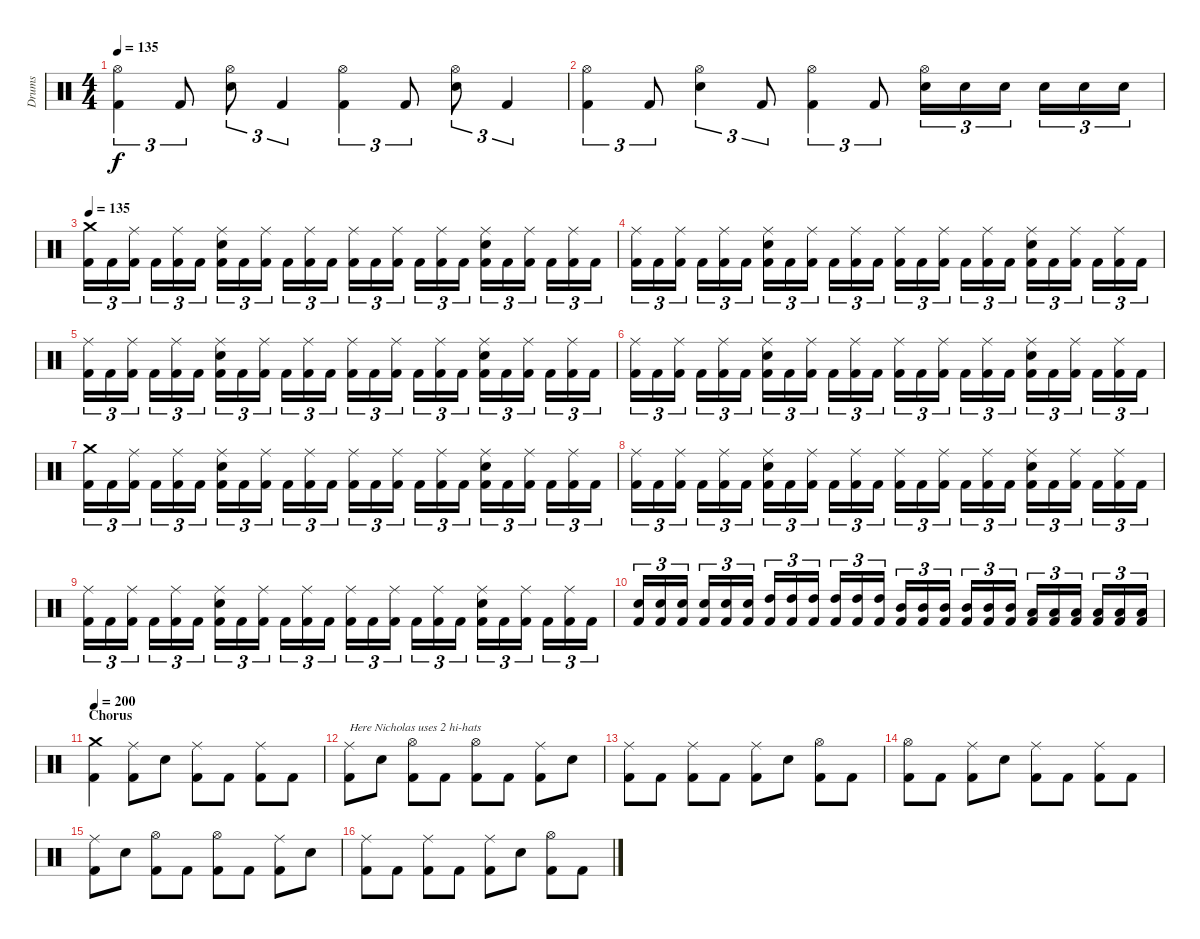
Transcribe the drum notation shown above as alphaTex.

\track ("Drums" "Drums") {instrument percussion}
\staff {score}
\articulation defaults
\ts (4 4)
\tempo 135
\clef neutral
\ks c
("Hi-Hat (open)" "Kick (hit) 2").4{tu (3 2) dy f} "Kick (hit) 2".8{tu (3 2)} ("Hi-Hat (open)" "Electric Snare (hit)").8{tu (3 2)} "Kick (hit) 2".4{tu (3 2)} ("Hi-Hat (open)" "Kick (hit) 2").4{tu (3 2)} "Kick (hit) 2".8{tu (3 2)} ("Hi-Hat (open)" "Electric Snare (hit)").8{tu (3 2)} "Kick (hit) 2".4{tu (3 2)} |
("Hi-Hat (open)" "Kick (hit) 2").4{tu (3 2)} "Kick (hit) 2".8{tu (3 2)} ("Hi-Hat (open)" "Electric Snare (hit)").4{tu (3 2)} "Kick (hit) 2".8{tu (3 2)} ("Hi-Hat (open)" "Kick (hit) 2").4{tu (3 2)} "Kick (hit) 2".8{tu (3 2)} ("Hi-Hat (open)" "Electric Snare (hit)").16{tu (3 2)} "Electric Snare (hit)".16{tu (3 2)} "Electric Snare (hit)".16{tu (3 2)} "Electric Snare (hit)".16{tu (3 2)} "Electric Snare (hit)".16{tu (3 2)} "Electric Snare (hit)".16{tu (3 2)} |
\tempo 135
("Crash medium (hit)" "Kick (hit) 2").16{tu (3 2)} "Kick (hit) 2".16{tu (3 2)} ("Ride (middle)" "Kick (hit) 2").16{tu (3 2)} "Kick (hit) 2".16{tu (3 2)} ("Ride (middle)" "Kick (hit) 2").16{tu (3 2)} "Kick (hit) 2".16{tu (3 2)} ("Ride (middle)" "Electric Snare (hit)" "Kick (hit) 2").16{tu (3 2)} "Kick (hit) 2".16{tu (3 2)} ("Ride (middle)" "Kick (hit) 2").16{tu (3 2)} "Kick (hit) 2".16{tu (3 2)} ("Ride (middle)" "Kick (hit) 2").16{tu (3 2)} "Kick (hit) 2".16{tu (3 2)} ("Ride (middle)" "Kick (hit) 2").16{tu (3 2)} "Kick (hit) 2".16{tu (3 2)} ("Ride (middle)" "Kick (hit) 2").16{tu (3 2)} "Kick (hit) 2".16{tu (3 2)} ("Ride (middle)" "Kick (hit) 2").16{tu (3 2)} "Kick (hit) 2".16{tu (3 2)} ("Ride (middle)" "Electric Snare (hit)" "Kick (hit) 2").16{tu (3 2)} "Kick (hit) 2".16{tu (3 2)} ("Ride (middle)" "Kick (hit) 2").16{tu (3 2)} "Kick (hit) 2".16{tu (3 2)} ("Ride (middle)" "Kick (hit) 2").16{tu (3 2)} "Kick (hit) 2".16{tu (3 2)} |
("Ride (middle)" "Kick (hit) 2").16{tu (3 2)} "Kick (hit) 2".16{tu (3 2)} ("Ride (middle)" "Kick (hit) 2").16{tu (3 2)} "Kick (hit) 2".16{tu (3 2)} ("Ride (middle)" "Kick (hit) 2").16{tu (3 2)} "Kick (hit) 2".16{tu (3 2)} ("Ride (middle)" "Electric Snare (hit)" "Kick (hit) 2").16{tu (3 2)} "Kick (hit) 2".16{tu (3 2)} ("Ride (middle)" "Kick (hit) 2").16{tu (3 2)} "Kick (hit) 2".16{tu (3 2)} ("Ride (middle)" "Kick (hit) 2").16{tu (3 2)} "Kick (hit) 2".16{tu (3 2)} ("Ride (middle)" "Kick (hit) 2").16{tu (3 2)} "Kick (hit) 2".16{tu (3 2)} ("Ride (middle)" "Kick (hit) 2").16{tu (3 2)} "Kick (hit) 2".16{tu (3 2)} ("Ride (middle)" "Kick (hit) 2").16{tu (3 2)} "Kick (hit) 2".16{tu (3 2)} ("Ride (middle)" "Electric Snare (hit)" "Kick (hit) 2").16{tu (3 2)} "Kick (hit) 2".16{tu (3 2)} ("Ride (middle)" "Kick (hit) 2").16{tu (3 2)} "Kick (hit) 2".16{tu (3 2)} ("Ride (middle)" "Kick (hit) 2").16{tu (3 2)} "Kick (hit) 2".16{tu (3 2)} |
("Ride (middle)" "Kick (hit) 2").16{tu (3 2)} "Kick (hit) 2".16{tu (3 2)} ("Ride (middle)" "Kick (hit) 2").16{tu (3 2)} "Kick (hit) 2".16{tu (3 2)} ("Ride (middle)" "Kick (hit) 2").16{tu (3 2)} "Kick (hit) 2".16{tu (3 2)} ("Ride (middle)" "Electric Snare (hit)" "Kick (hit) 2").16{tu (3 2)} "Kick (hit) 2".16{tu (3 2)} ("Ride (middle)" "Kick (hit) 2").16{tu (3 2)} "Kick (hit) 2".16{tu (3 2)} ("Ride (middle)" "Kick (hit) 2").16{tu (3 2)} "Kick (hit) 2".16{tu (3 2)} ("Ride (middle)" "Kick (hit) 2").16{tu (3 2)} "Kick (hit) 2".16{tu (3 2)} ("Ride (middle)" "Kick (hit) 2").16{tu (3 2)} "Kick (hit) 2".16{tu (3 2)} ("Ride (middle)" "Kick (hit) 2").16{tu (3 2)} "Kick (hit) 2".16{tu (3 2)} ("Ride (middle)" "Electric Snare (hit)" "Kick (hit) 2").16{tu (3 2)} "Kick (hit) 2".16{tu (3 2)} ("Ride (middle)" "Kick (hit) 2").16{tu (3 2)} "Kick (hit) 2".16{tu (3 2)} ("Ride (middle)" "Kick (hit) 2").16{tu (3 2)} "Kick (hit) 2".16{tu (3 2)} |
("Ride (middle)" "Kick (hit) 2").16{tu (3 2)} "Kick (hit) 2".16{tu (3 2)} ("Ride (middle)" "Kick (hit) 2").16{tu (3 2)} "Kick (hit) 2".16{tu (3 2)} ("Ride (middle)" "Kick (hit) 2").16{tu (3 2)} "Kick (hit) 2".16{tu (3 2)} ("Ride (middle)" "Electric Snare (hit)" "Kick (hit) 2").16{tu (3 2)} "Kick (hit) 2".16{tu (3 2)} ("Ride (middle)" "Kick (hit) 2").16{tu (3 2)} "Kick (hit) 2".16{tu (3 2)} ("Ride (middle)" "Kick (hit) 2").16{tu (3 2)} "Kick (hit) 2".16{tu (3 2)} ("Ride (middle)" "Kick (hit) 2").16{tu (3 2)} "Kick (hit) 2".16{tu (3 2)} ("Ride (middle)" "Kick (hit) 2").16{tu (3 2)} "Kick (hit) 2".16{tu (3 2)} ("Ride (middle)" "Kick (hit) 2").16{tu (3 2)} "Kick (hit) 2".16{tu (3 2)} ("Ride (middle)" "Electric Snare (hit)" "Kick (hit) 2").16{tu (3 2)} "Kick (hit) 2".16{tu (3 2)} ("Ride (middle)" "Kick (hit) 2").16{tu (3 2)} "Kick (hit) 2".16{tu (3 2)} ("Ride (middle)" "Kick (hit) 2").16{tu (3 2)} "Kick (hit) 2".16{tu (3 2)} |
("Crash medium (hit)" "Kick (hit) 2").16{tu (3 2)} "Kick (hit) 2".16{tu (3 2)} ("Ride (middle)" "Kick (hit) 2").16{tu (3 2)} "Kick (hit) 2".16{tu (3 2)} ("Ride (middle)" "Kick (hit) 2").16{tu (3 2)} "Kick (hit) 2".16{tu (3 2)} ("Ride (middle)" "Electric Snare (hit)" "Kick (hit) 2").16{tu (3 2)} "Kick (hit) 2".16{tu (3 2)} ("Ride (middle)" "Kick (hit) 2").16{tu (3 2)} "Kick (hit) 2".16{tu (3 2)} ("Ride (middle)" "Kick (hit) 2").16{tu (3 2)} "Kick (hit) 2".16{tu (3 2)} ("Ride (middle)" "Kick (hit) 2").16{tu (3 2)} "Kick (hit) 2".16{tu (3 2)} ("Ride (middle)" "Kick (hit) 2").16{tu (3 2)} "Kick (hit) 2".16{tu (3 2)} ("Ride (middle)" "Kick (hit) 2").16{tu (3 2)} "Kick (hit) 2".16{tu (3 2)} ("Ride (middle)" "Electric Snare (hit)" "Kick (hit) 2").16{tu (3 2)} "Kick (hit) 2".16{tu (3 2)} ("Ride (middle)" "Kick (hit) 2").16{tu (3 2)} "Kick (hit) 2".16{tu (3 2)} ("Ride (middle)" "Kick (hit) 2").16{tu (3 2)} "Kick (hit) 2".16{tu (3 2)} |
("Ride (middle)" "Kick (hit) 2").16{tu (3 2)} "Kick (hit) 2".16{tu (3 2)} ("Ride (middle)" "Kick (hit) 2").16{tu (3 2)} "Kick (hit) 2".16{tu (3 2)} ("Ride (middle)" "Kick (hit) 2").16{tu (3 2)} "Kick (hit) 2".16{tu (3 2)} ("Ride (middle)" "Electric Snare (hit)" "Kick (hit) 2").16{tu (3 2)} "Kick (hit) 2".16{tu (3 2)} ("Ride (middle)" "Kick (hit) 2").16{tu (3 2)} "Kick (hit) 2".16{tu (3 2)} ("Ride (middle)" "Kick (hit) 2").16{tu (3 2)} "Kick (hit) 2".16{tu (3 2)} ("Ride (middle)" "Kick (hit) 2").16{tu (3 2)} "Kick (hit) 2".16{tu (3 2)} ("Ride (middle)" "Kick (hit) 2").16{tu (3 2)} "Kick (hit) 2".16{tu (3 2)} ("Ride (middle)" "Kick (hit) 2").16{tu (3 2)} "Kick (hit) 2".16{tu (3 2)} ("Ride (middle)" "Electric Snare (hit)" "Kick (hit) 2").16{tu (3 2)} "Kick (hit) 2".16{tu (3 2)} ("Ride (middle)" "Kick (hit) 2").16{tu (3 2)} "Kick (hit) 2".16{tu (3 2)} ("Ride (middle)" "Kick (hit) 2").16{tu (3 2)} "Kick (hit) 2".16{tu (3 2)} |
("Ride (middle)" "Kick (hit) 2").16{tu (3 2)} "Kick (hit) 2".16{tu (3 2)} ("Ride (middle)" "Kick (hit) 2").16{tu (3 2)} "Kick (hit) 2".16{tu (3 2)} ("Ride (middle)" "Kick (hit) 2").16{tu (3 2)} "Kick (hit) 2".16{tu (3 2)} ("Ride (middle)" "Electric Snare (hit)" "Kick (hit) 2").16{tu (3 2)} "Kick (hit) 2".16{tu (3 2)} ("Ride (middle)" "Kick (hit) 2").16{tu (3 2)} "Kick (hit) 2".16{tu (3 2)} ("Ride (middle)" "Kick (hit) 2").16{tu (3 2)} "Kick (hit) 2".16{tu (3 2)} ("Ride (middle)" "Kick (hit) 2").16{tu (3 2)} "Kick (hit) 2".16{tu (3 2)} ("Ride (middle)" "Kick (hit) 2").16{tu (3 2)} "Kick (hit) 2".16{tu (3 2)} ("Ride (middle)" "Kick (hit) 2").16{tu (3 2)} "Kick (hit) 2".16{tu (3 2)} ("Ride (middle)" "Electric Snare (hit)" "Kick (hit) 2").16{tu (3 2)} "Kick (hit) 2".16{tu (3 2)} ("Ride (middle)" "Kick (hit) 2").16{tu (3 2)} "Kick (hit) 2".16{tu (3 2)} ("Ride (middle)" "Kick (hit) 2").16{tu (3 2)} "Kick (hit) 2".16{tu (3 2)} |
("Electric Snare (hit)" "Kick (hit) 2").16{tu (3 2)} ("Electric Snare (hit)" "Kick (hit) 2").16{tu (3 2)} ("Electric Snare (hit)" "Kick (hit) 2").16{tu (3 2)} ("Electric Snare (hit)" "Kick (hit) 2").16{tu (3 2)} ("Electric Snare (hit)" "Kick (hit) 2").16{tu (3 2)} ("Electric Snare (hit)" "Kick (hit) 2").16{tu (3 2)} ("High Tom (hit)" "Kick (hit) 2").16{tu (3 2)} ("High Tom (hit)" "Kick (hit) 2").16{tu (3 2)} ("High Tom (hit)" "Kick (hit) 2").16{tu (3 2)} ("High Tom (hit)" "Kick (hit) 2").16{tu (3 2)} ("High Tom (hit)" "Kick (hit) 2").16{tu (3 2)} ("High Tom (hit)" "Kick (hit) 2").16{tu (3 2)} ("Mid Tom (hit)" "Kick (hit) 2").16{tu (3 2)} ("Mid Tom (hit)" "Kick (hit) 2").16{tu (3 2)} ("Mid Tom (hit)" "Kick (hit) 2").16{tu (3 2)} ("Mid Tom (hit)" "Kick (hit) 2").16{tu (3 2)} ("Mid Tom (hit)" "Kick (hit) 2").16{tu (3 2)} ("Mid Tom (hit)" "Kick (hit) 2").16{tu (3 2)} ("Low Tom (hit)" "Kick (hit) 2").16{tu (3 2)} ("Low Tom (hit)" "Kick (hit) 2").16{tu (3 2)} ("Low Tom (hit)" "Kick (hit) 2").16{tu (3 2)} ("Low Tom (hit)" "Kick (hit) 2").16{tu (3 2)} ("Low Tom (hit)" "Kick (hit) 2").16{tu (3 2)} ("Low Tom (hit)" "Kick (hit) 2").16{tu (3 2)} |
\section ("" "Chorus")
\tempo 200
("Crash medium (hit)" "Kick (hit) 2").4 ("Ride (middle)" "Kick (hit) 2").8 "Electric Snare (hit)".8 ("Ride (middle)" "Kick (hit) 2").8 "Kick (hit) 2".8 ("Ride (middle)" "Kick (hit) 2").8 "Kick (hit) 2".8 |
("Ride (middle)" "Kick (hit) 2").8{txt "Here Nicholas uses 2 hi-hats"} "Electric Snare (hit)".8 ("Hi-Hat (open)" "Kick (hit) 2").8 "Kick (hit) 2".8 ("Hi-Hat (open)" "Kick (hit) 2").8 "Kick (hit) 2".8 ("Ride (middle)" "Kick (hit) 2").8 "Electric Snare (hit)".8 |
("Ride (middle)" "Kick (hit) 2").8 "Kick (hit) 2".8 ("Ride (middle)" "Kick (hit) 2").8 "Kick (hit) 2".8 ("Ride (middle)" "Kick (hit) 2").8 "Electric Snare (hit)".8 ("Hi-Hat (open)" "Kick (hit) 2").8 "Kick (hit) 2".8 |
("Hi-Hat (open)" "Kick (hit) 2").8 "Kick (hit) 2".8 ("Ride (middle)" "Kick (hit) 2").8 "Electric Snare (hit)".8 ("Ride (middle)" "Kick (hit) 2").8 "Kick (hit) 2".8 ("Ride (middle)" "Kick (hit) 2").8 "Kick (hit) 2".8 |
("Ride (middle)" "Kick (hit) 2").8 "Electric Snare (hit)".8 ("Hi-Hat (open)" "Kick (hit) 2").8 "Kick (hit) 2".8 ("Hi-Hat (open)" "Kick (hit) 2").8 "Kick (hit) 2".8 ("Ride (middle)" "Kick (hit) 2").8 "Electric Snare (hit)".8 |
("Ride (middle)" "Kick (hit) 2").8 "Kick (hit) 2".8 ("Ride (middle)" "Kick (hit) 2").8 "Kick (hit) 2".8 ("Ride (middle)" "Kick (hit) 2").8 "Electric Snare (hit)".8 ("Hi-Hat (open)" "Kick (hit) 2").8 "Kick (hit) 2".8
